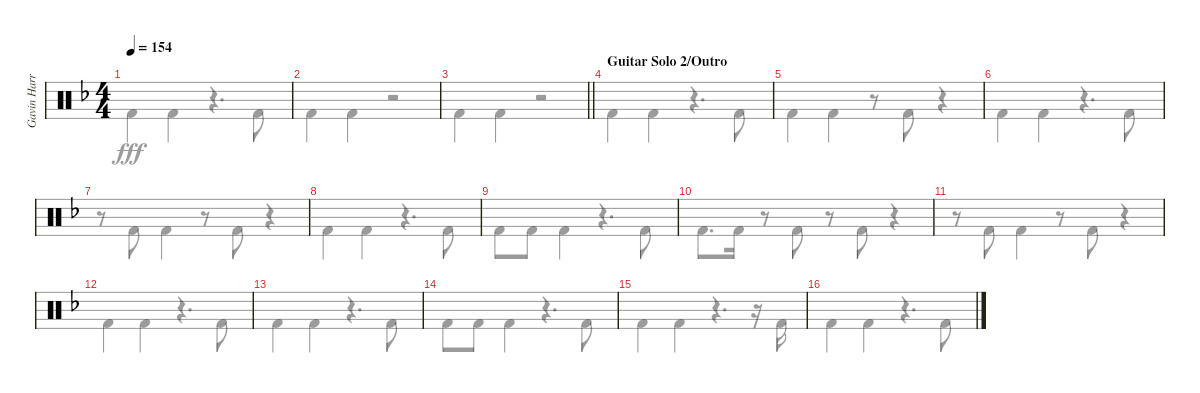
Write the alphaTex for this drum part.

\track ("Gavin Harrison Bass Pedal" "Gavin Harr") {instrument percussion}
\staff {score}
\articulation defaults
\voice
\ts (4 4)
\tempo 154
\clef neutral
\ks dminor
|
|
\barLineRight lightlight
|
\section ("" "Guitar Solo 2/Outro")
|
|
|
|
|
|
|
|
|
|
|
|
\voice
\clef neutral
\ks dminor "Kick (hit) 2".4{dy fff} "Kick (hit) 2".4
r.4{d} "Kick (hit) 2".8 |
"Kick (hit) 2".4 "Kick (hit) 2".4 r.2 |
\barLineRight lightlight "Kick (hit) 2".4 "Kick (hit) 2".4
r.2 |
"Kick (hit) 2".4 "Kick (hit) 2".4 r.4{d} "Kick (hit) 2".8 |
"Kick (hit) 2".4 "Kick (hit) 2".4 r.8 "Kick (hit) 2".8 r.4 |
"Kick (hit) 2".4 "Kick (hit) 2".4 r.4{d} "Kick (hit) 2".8 |
r.8 "Kick (hit) 2".8 "Kick (hit) 2".4 r.8 "Kick (hit) 2".8 r.4 |
"Kick (hit) 2".4 "Kick (hit) 2".4 r.4{d} "Kick (hit) 2".8 |
"Kick (hit) 2".8 "Kick (hit) 2".8 "Kick (hit) 2".4 r.4{d} "Kick (hit) 2".8 |
"Kick (hit) 2".8{d} "Kick (hit) 2".16 r.8 "Kick (hit) 2".8 r.8 "Kick (hit) 2".8 r.4 |
r.8 "Kick (hit) 2".8 "Kick (hit) 2".4 r.8 "Kick (hit) 2".8 r.4 |
"Kick (hit) 2".4 "Kick (hit) 2".4 r.4{d} "Kick (hit) 2".8 |
"Kick (hit) 2".4 "Kick (hit) 2".4 r.4{d} "Kick (hit) 2".8 |
"Kick (hit) 2".8 "Kick (hit) 2".8 "Kick (hit) 2".4 r.4{d} "Kick (hit) 2".8 |
"Kick (hit) 2".4 "Kick (hit) 2".4 r.4{d} r.16 "Kick (hit) 2".16 |
"Kick (hit) 2".4 "Kick (hit) 2".4 r.4{d} "Kick (hit) 2".8
